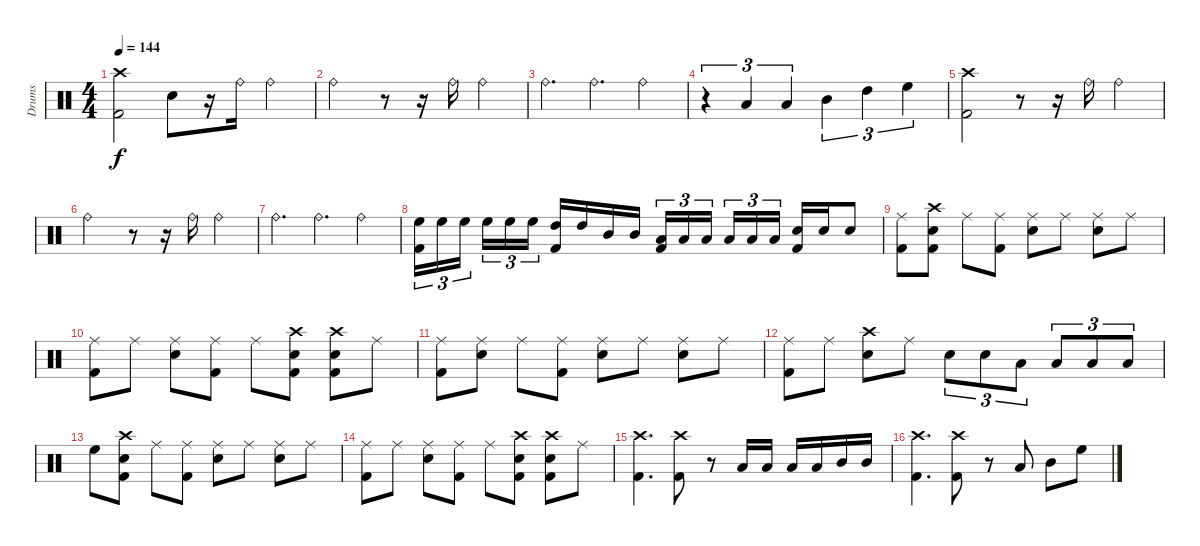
\track ("Drums" "Drums") {instrument percussion}
\staff {score}
\articulation defaults
\ts (4 4)
\tempo 144
\clef neutral
\ks c
("Crash high (hit)" "Kick (hit) 2").2{dy f} "Snare (hit)".8 r.16 "Ride (bell)".16 "Ride (bell)".4 |
"Ride (bell)".2 r.8 r.16 "Ride (bell)".16 "Ride (bell)".4 |
"Ride (bell)".4{d} "Ride (bell)".4{d} "Ride (bell)".4 |
r.4{tu (3 2)} "Low Floor Tom (hit)".4{tu (3 2)} "Low Tom (hit)".4{tu (3 2)} "Mid Tom (hit)".4{tu (3 2)} "High Tom (hit)".4{tu (3 2)} "High Floor Tom (hit)".4{tu (3 2)} |
("Crash high (hit)" "Kick (hit) 2").2 r.8 r.16 "Ride (bell)".16 "Ride (bell)".4 |
"Ride (bell)".2 r.8 r.16 "Ride (bell)".16 "Ride (bell)".4 |
"Ride (bell)".4{d} "Ride (bell)".4{d} "Ride (bell)".4 |
("High Floor Tom (hit)" "Kick (hit) 2").16{tu (3 2)} "High Floor Tom (hit)".16{tu (3 2)} "High Floor Tom (hit)".16{tu (3 2) beam splitsecondary} "High Floor Tom (hit)".16{tu (3 2)} "High Floor Tom (hit)".16{tu (3 2)} "High Floor Tom (hit)".16{tu (3 2)} ("High Tom (hit)" "Kick (hit) 2").16 "High Tom (hit)".16 "Mid Tom (hit)".16 "Mid Tom (hit)".16 ("Low Tom (hit)" "Kick (hit) 2").16{tu (3 2)} "Low Tom (hit)".16{tu (3 2)} "Low Tom (hit)".16{tu (3 2) beam splitsecondary} "Low Tom (hit)".16{tu (3 2)} "Low Tom (hit)".16{tu (3 2)} "Low Tom (hit)".16{tu (3 2)} ("Snare (hit) 2" "Kick (hit) 2").16 "Snare (hit) 2".16 "Snare (hit) 2".8 |
("Ride (middle)" "Kick (hit) 2").8 ("Crash high (hit)" "Snare (hit) 2" "Kick (hit) 2").8 "Ride (middle)".8 ("Ride (middle)" "Kick (hit) 2").8 ("Ride (middle)" "Snare (hit) 2").8 "Ride (middle)".8 ("Ride (middle)" "Snare (hit) 2").8 "Ride (middle)".8 |
("Ride (middle)" "Kick (hit) 2").8 "Ride (middle)".8 ("Ride (middle)" "Snare (hit) 2").8 ("Ride (middle)" "Kick (hit) 2").8 "Ride (middle)".8 ("Crash high (hit)" "Snare (hit) 2" "Kick (hit) 2").8 ("Crash high (hit)" "Snare (hit) 2" "Kick (hit) 2").8 "Ride (middle)".8 |
("Ride (middle)" "Kick (hit) 2").8 ("Ride (middle)" "Snare (hit) 2").8 "Ride (middle)".8 ("Ride (middle)" "Kick (hit) 2").8 ("Ride (middle)" "Snare (hit) 2").8 "Ride (middle)".8 ("Ride (middle)" "Snare (hit) 2").8 "Ride (middle)".8 |
("Ride (middle)" "Kick (hit) 2").8 "Ride (middle)".8 ("Crash high (hit)" "Snare (hit) 2").8 "Ride (middle)".8 "Snare (hit) 2".8{tu (3 2)} "Snare (hit) 2".8{tu (3 2)} "Low Floor Tom (hit)".8{tu (3 2)} "Low Floor Tom (hit)".8{tu (3 2)} "Low Tom (hit)".8{tu (3 2)} "Low Tom (hit)".8{tu (3 2)} |
"High Floor Tom (hit)".8 ("Crash high (hit)" "Snare (hit) 2" "Kick (hit) 2").8 "Ride (middle)".8 ("Ride (middle)" "Kick (hit) 2").8 ("Ride (middle)" "Snare (hit) 2").8 "Ride (middle)".8 ("Ride (middle)" "Snare (hit) 2").8 "Ride (middle)".8 |
("Ride (middle)" "Kick (hit) 2").8 "Ride (middle)".8 ("Ride (middle)" "Snare (hit) 2").8 ("Ride (middle)" "Kick (hit) 2").8 "Ride (middle)".8 ("Crash high (hit)" "Snare (hit) 2" "Kick (hit) 2").8 ("Crash high (hit)" "Snare (hit) 2" "Kick (hit) 2").8 "Ride (middle)".8 |
("Crash high (hit)" "Kick (hit) 2").4{d} ("Crash high (hit)" "Kick (hit) 2").8 r.8 "Low Floor Tom (hit)".16 "Low Floor Tom (hit)".16 "Low Tom (hit)".16 "Low Tom (hit)".16 "Mid Tom (hit)".16 "Mid Tom (hit)".16 |
("Crash high (hit)" "Kick (hit) 2").4{d} ("Crash high (hit)" "Kick (hit) 2").8 r.8 "Low Tom (hit)".8 "Mid Tom (hit)".8 "High Floor Tom (hit)".8
